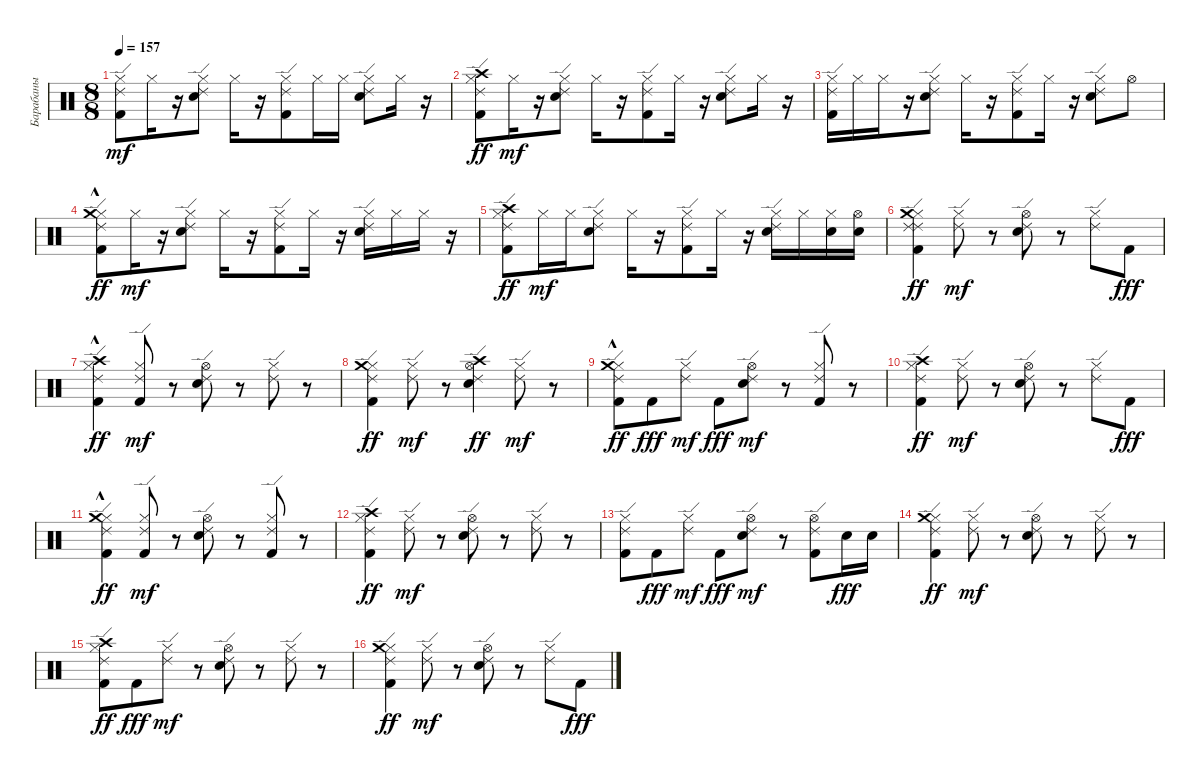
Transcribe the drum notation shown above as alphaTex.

\track ("Барабаны" "Барабаны") {instrument percussion}
\staff {score}
\articulation defaults
\ts (8 8)
\tempo 157
\clef neutral
\ks c
("Kick (hit) 2" "Hi-Hat (closed)" "Ride (edge) 2").8{dy mf} "Hi-Hat (closed)".16 r.16 ("Snare (hit) 2" "Hi-Hat (closed)" "Ride (edge) 2").8 "Hi-Hat (closed)".16 r.16 ("Kick (hit) 2" "Hi-Hat (closed)" "Ride (edge) 2").8 "Hi-Hat (closed)".16 "Hi-Hat (closed)".16 ("Snare (hit) 2" "Hi-Hat (closed)" "Ride (edge) 2").8 "Hi-Hat (closed)".16 r.16 |
("Kick (hit) 2" "Hi-Hat (closed)" "Ride (edge) 2" "Crash high (hit)").8{dy ff} "Hi-Hat (closed)".16{dy mf} r.16 ("Snare (hit) 2" "Hi-Hat (closed)" "Ride (edge) 2").8 "Hi-Hat (closed)".16 r.16 ("Kick (hit) 2" "Hi-Hat (closed)" "Ride (edge) 2").8 "Hi-Hat (closed)".16 r.16 ("Snare (hit) 2" "Hi-Hat (closed)" "Ride (edge) 2").8 "Hi-Hat (closed)".16 r.16 |
("Kick (hit) 2" "Hi-Hat (closed)" "Ride (edge) 2").16 "Hi-Hat (closed)".16 "Hi-Hat (closed)".16 r.16 ("Snare (hit) 2" "Hi-Hat (closed)" "Ride (edge) 2").8 "Hi-Hat (closed)".16 r.16 ("Kick (hit) 2" "Hi-Hat (closed)" "Ride (edge) 2").8 "Hi-Hat (closed)".16 r.16 ("Snare (hit) 2" "Hi-Hat (closed)" "Ride (edge) 2").8 "Hi-Hat (open)".8 |
("Kick (hit) 2" "Hi-Hat (closed)" "Ride (edge) 2" "Crash medium (hit)"{hac}).8{dy ff} "Hi-Hat (closed)".16{dy mf} r.16 ("Snare (hit) 2" "Hi-Hat (closed)" "Ride (edge) 2").8 "Hi-Hat (closed)".16 r.16 ("Kick (hit) 2" "Hi-Hat (closed)" "Ride (edge) 2").8 "Hi-Hat (closed)".16 r.16 ("Snare (hit) 2" "Hi-Hat (closed)" "Ride (edge) 2").16 "Hi-Hat (closed)".16 "Hi-Hat (closed)".16 r.16 |
("Kick (hit) 2" "Hi-Hat (closed)" "Ride (edge) 2" "Crash high (hit)").8{dy ff} "Hi-Hat (closed)".16{dy mf} "Hi-Hat (closed)".16 ("Snare (hit) 2" "Hi-Hat (closed)" "Ride (edge) 2").8 "Hi-Hat (closed)".16 r.16 ("Kick (hit) 2" "Hi-Hat (closed)" "Ride (edge) 2").8 "Hi-Hat (closed)".16 r.16 ("Snare (hit) 2" "Hi-Hat (closed)" "Ride (edge) 2").16 "Hi-Hat (closed)".16 ("Snare (hit) 2" "Hi-Hat (closed)").16 ("Snare (hit) 2" "Hi-Hat (open)").16 |
("Kick (hit) 2" "Hi-Hat (closed)" "Ride (edge) 2" "Ride (edge) 2" "Crash medium (hit)").4{dy ff} ("Hi-Hat (closed)" "Ride (edge) 2").8{dy mf} r.8 ("Snare (hit) 2" "Hi-Hat (open)" "Ride (edge) 2").8 r.8 ("Hi-Hat (closed)" "Ride (edge) 2").8 "Kick (hit) 2".8{dy fff} |
("Kick (hit) 2" "Hi-Hat (closed)" "Ride (edge) 2" "Crash high (hit)"{hac}).4{dy ff} ("Kick (hit) 2" "Hi-Hat (closed)" "Ride (edge) 2").8{dy mf} r.8 ("Snare (hit) 2" "Hi-Hat (open)" "Ride (edge) 2").8 r.8 ("Hi-Hat (closed)" "Ride (edge) 2").8 r.8 |
("Kick (hit) 2" "Hi-Hat (closed)" "Ride (edge) 2" "Crash medium (hit)").4{dy ff} ("Hi-Hat (closed)" "Ride (edge) 2").8{dy mf} r.8 ("Snare (hit) 2" "Hi-Hat (open)" "Ride (edge) 2" "Crash high (hit)").4{dy ff} ("Hi-Hat (closed)" "Ride (edge) 2").8{dy mf} r.8 |
("Kick (hit) 2" "Hi-Hat (closed)" "Ride (edge) 2" "Crash medium (hit)"{hac}).8{dy ff} "Kick (hit) 2".8{dy fff} ("Hi-Hat (closed)" "Ride (edge) 2").8{dy mf} "Kick (hit) 2".8{dy fff} ("Snare (hit) 2" "Hi-Hat (open)" "Ride (edge) 2").8{dy mf} r.8 ("Kick (hit) 2" "Hi-Hat (closed)" "Ride (edge) 2").8 r.8 |
("Kick (hit) 2" "Hi-Hat (closed)" "Ride (edge) 2" "Crash high (hit)").4{dy ff} ("Hi-Hat (closed)" "Ride (edge) 2").8{dy mf} r.8 ("Snare (hit) 2" "Hi-Hat (open)" "Ride (edge) 2").8 r.8 ("Hi-Hat (closed)" "Ride (edge) 2").8 "Kick (hit) 2".8{dy fff} |
("Kick (hit) 2" "Hi-Hat (closed)" "Ride (edge) 2" "Crash medium (hit)"{hac}).4{dy ff} ("Kick (hit) 2" "Hi-Hat (closed)" "Ride (edge) 2").8{dy mf} r.8 ("Snare (hit) 2" "Hi-Hat (open)" "Ride (edge) 2").8 r.8 ("Kick (hit) 2" "Hi-Hat (closed)" "Ride (edge) 2").8 r.8 |
("Kick (hit) 2" "Hi-Hat (closed)" "Ride (edge) 2" "Crash high (hit)").4{dy ff} ("Hi-Hat (closed)" "Ride (edge) 2").8{dy mf} r.8 ("Snare (hit) 2" "Hi-Hat (open)" "Ride (edge) 2").8 r.8 ("Hi-Hat (closed)" "Ride (edge) 2").8 r.8 |
("Kick (hit) 2" "Hi-Hat (closed)" "Ride (edge) 2").8 "Kick (hit) 2".8{dy fff} ("Hi-Hat (closed)" "Ride (edge) 2").8{dy mf} "Kick (hit) 2".8{dy fff} ("Snare (hit) 2" "Hi-Hat (open)" "Ride (edge) 2").8{dy mf} r.8 ("Kick (hit) 2" "Hi-Hat (open)" "Ride (edge) 2").8 "Snare (hit) 2".16{dy fff} "Snare (hit) 2".16 |
("Kick (hit) 2" "Hi-Hat (closed)" "Ride (edge) 2" "Crash medium (hit)").4{dy ff} ("Hi-Hat (closed)" "Ride (edge) 2").8{dy mf} r.8 ("Snare (hit) 2" "Hi-Hat (open)" "Ride (edge) 2").8 r.8 ("Hi-Hat (closed)" "Ride (edge) 2").8 r.8 |
("Kick (hit) 2" "Hi-Hat (closed)" "Ride (edge) 2" "Crash high (hit)").8{dy ff} "Kick (hit) 2".8{dy fff} ("Hi-Hat (closed)" "Ride (edge) 2").8{dy mf} r.8 ("Snare (hit) 2" "Hi-Hat (open)" "Ride (edge) 2").8 r.8 ("Hi-Hat (closed)" "Ride (edge) 2").8 r.8 |
("Kick (hit) 2" "Hi-Hat (closed)" "Ride (edge) 2" "Crash medium (hit)").4{dy ff} ("Hi-Hat (closed)" "Ride (edge) 2").8{dy mf} r.8 ("Snare (hit) 2" "Hi-Hat (open)" "Ride (edge) 2").8 r.8 ("Hi-Hat (closed)" "Ride (edge) 2").8 "Kick (hit) 2".8{dy fff}
